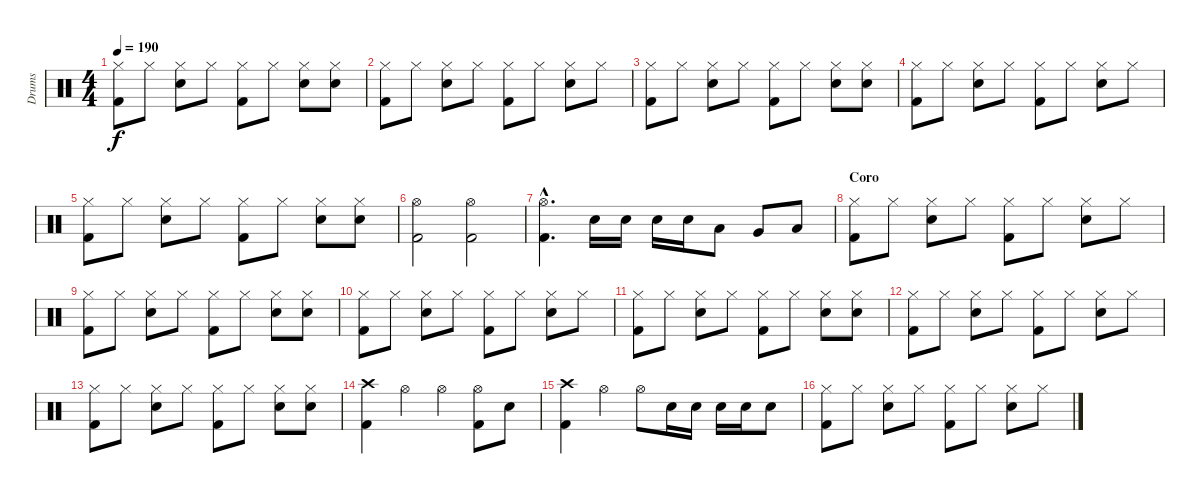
\track ("Drums" "Drums") {instrument percussion}
\staff {score}
\articulation defaults
\ts (4 4)
\tempo 190
\clef neutral
\ks c
("Kick (hit) 2" "Hi-Hat (closed)").8{dy f} "Hi-Hat (closed)".8 ("Snare (hit) 2" "Hi-Hat (closed)").8 "Hi-Hat (closed)".8 ("Kick (hit) 2" "Hi-Hat (closed)").8 "Hi-Hat (closed)".8 ("Snare (hit) 2" "Hi-Hat (closed)").8 ("Snare (hit) 2" "Hi-Hat (closed)").8 |
("Kick (hit) 2" "Hi-Hat (closed)").8 "Hi-Hat (closed)".8 ("Snare (hit) 2" "Hi-Hat (closed)").8 "Hi-Hat (closed)".8 ("Kick (hit) 2" "Hi-Hat (closed)").8 "Hi-Hat (closed)".8 ("Snare (hit) 2" "Hi-Hat (closed)").8 "Hi-Hat (closed)".8 |
("Kick (hit) 2" "Hi-Hat (closed)").8 "Hi-Hat (closed)".8 ("Snare (hit) 2" "Hi-Hat (closed)").8 "Hi-Hat (closed)".8 ("Kick (hit) 2" "Hi-Hat (closed)").8 "Hi-Hat (closed)".8 ("Snare (hit) 2" "Hi-Hat (closed)").8 ("Snare (hit) 2" "Hi-Hat (closed)").8 |
("Kick (hit) 2" "Hi-Hat (closed)").8 "Hi-Hat (closed)".8 ("Snare (hit) 2" "Hi-Hat (closed)").8 "Hi-Hat (closed)".8 ("Kick (hit) 2" "Hi-Hat (closed)").8 "Hi-Hat (closed)".8 ("Snare (hit) 2" "Hi-Hat (closed)").8 "Hi-Hat (closed)".8 |
("Kick (hit) 2" "Hi-Hat (closed)").8 "Hi-Hat (closed)".8 ("Snare (hit) 2" "Hi-Hat (closed)").8 "Hi-Hat (closed)".8 ("Kick (hit) 2" "Hi-Hat (closed)").8 "Hi-Hat (closed)".8 ("Snare (hit) 2" "Hi-Hat (closed)").8 ("Snare (hit) 2" "Hi-Hat (closed)").8 |
("Hi-Hat (open)" "Kick (hit) 2").2 ("Kick (hit) 2" "Hi-Hat (open)").2 |
("Hi-Hat (open)"{hac} "Kick (hit) 2"{hac}).4{d} "Snare (hit) 2".16 "Snare (hit) 2".16 "Snare (hit) 2".16 "Snare (hit) 2".16 "Low Tom (hit)".8 "Very Low Tom (hit)".8 "Low Floor Tom (hit)".8 |
\section ("" "Coro")
("Kick (hit) 2" "Hi-Hat (closed)").8 "Hi-Hat (closed)".8 ("Snare (hit) 2" "Hi-Hat (closed)").8 "Hi-Hat (closed)".8 ("Kick (hit) 2" "Hi-Hat (closed)").8 "Hi-Hat (closed)".8 ("Snare (hit) 2" "Hi-Hat (closed)").8 "Hi-Hat (closed)".8 |
("Kick (hit) 2" "Hi-Hat (closed)").8 "Hi-Hat (closed)".8 ("Snare (hit) 2" "Hi-Hat (closed)").8 "Hi-Hat (closed)".8 ("Kick (hit) 2" "Hi-Hat (closed)").8 "Hi-Hat (closed)".8 ("Snare (hit) 2" "Hi-Hat (closed)").8 ("Snare (hit) 2" "Hi-Hat (closed)").8 |
("Kick (hit) 2" "Hi-Hat (closed)").8 "Hi-Hat (closed)".8 ("Snare (hit) 2" "Hi-Hat (closed)").8 "Hi-Hat (closed)".8 ("Kick (hit) 2" "Hi-Hat (closed)").8 "Hi-Hat (closed)".8 ("Snare (hit) 2" "Hi-Hat (closed)").8 "Hi-Hat (closed)".8 |
("Kick (hit) 2" "Hi-Hat (closed)").8 "Hi-Hat (closed)".8 ("Snare (hit) 2" "Hi-Hat (closed)").8 "Hi-Hat (closed)".8 ("Kick (hit) 2" "Hi-Hat (closed)").8 "Hi-Hat (closed)".8 ("Snare (hit) 2" "Hi-Hat (closed)").8 ("Snare (hit) 2" "Hi-Hat (closed)").8 |
("Kick (hit) 2" "Hi-Hat (closed)").8 "Hi-Hat (closed)".8 ("Snare (hit) 2" "Hi-Hat (closed)").8 "Hi-Hat (closed)".8 ("Kick (hit) 2" "Hi-Hat (closed)").8 "Hi-Hat (closed)".8 ("Snare (hit) 2" "Hi-Hat (closed)").8 "Hi-Hat (closed)".8 |
("Kick (hit) 2" "Hi-Hat (closed)").8 "Hi-Hat (closed)".8 ("Snare (hit) 2" "Hi-Hat (closed)").8 "Hi-Hat (closed)".8 ("Kick (hit) 2" "Hi-Hat (closed)").8 "Hi-Hat (closed)".8 ("Snare (hit) 2" "Hi-Hat (closed)").8 ("Snare (hit) 2" "Hi-Hat (closed)").8 |
("Crash high (hit)" "Kick (hit) 2").4 "Hi-Hat (open)".4 "Hi-Hat (open)".4 ("Hi-Hat (open)" "Kick (hit) 2").8 "Snare (hit) 2".8 |
("Crash high (hit)" "Kick (hit) 2").4 "Hi-Hat (open)".4 "Hi-Hat (open)".8 "Snare (hit) 2".16 "Snare (hit) 2".16 "Snare (hit) 2".16 "Snare (hit) 2".16 "Snare (hit) 2".8 |
("Kick (hit) 2" "Hi-Hat (closed)").8 "Hi-Hat (closed)".8 ("Snare (hit) 2" "Hi-Hat (closed)").8 "Hi-Hat (closed)".8 ("Kick (hit) 2" "Hi-Hat (closed)").8 "Hi-Hat (closed)".8 ("Snare (hit) 2" "Hi-Hat (closed)").8 "Hi-Hat (closed)".8
